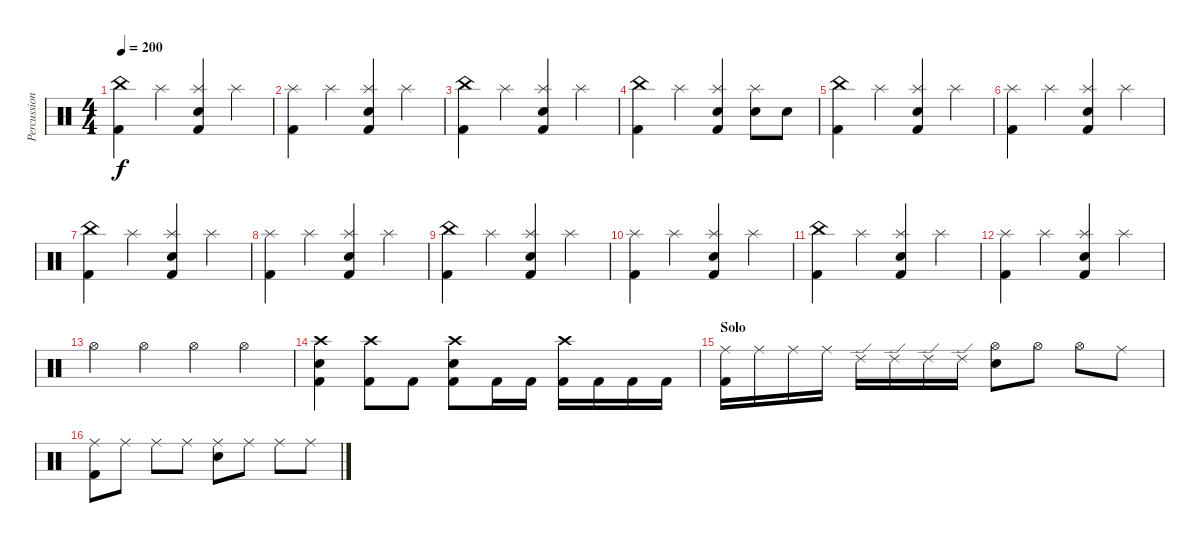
\track ("Percussion" "Percussion") {instrument percussion}
\staff {score}
\articulation defaults
\ts (4 4)
\tempo 200
\clef neutral
\ks c
("China (hit)" "Kick (hit) 2").4{dy f} "Splash (hit)".4 ("Splash (hit)" "Snare (hit) 2" "Kick (hit) 2").4 "Splash (hit)".4 |
("Splash (hit)" "Kick (hit) 2").4 "Splash (hit)".4 ("Splash (hit)" "Snare (hit) 2" "Kick (hit) 2").4 "Splash (hit)".4 |
("China (hit)" "Kick (hit) 2").4 "Splash (hit)".4 ("Splash (hit)" "Snare (hit) 2" "Kick (hit) 2").4 "Splash (hit)".4 |
("China (hit)" "Kick (hit) 2").4 "Splash (hit)".4 ("Splash (hit)" "Snare (hit) 2" "Kick (hit) 2").4 ("Splash (hit)" "Snare (hit) 2").8 "Snare (hit) 2".8 |
("China (hit)" "Kick (hit) 2").4 "Splash (hit)".4 ("Splash (hit)" "Snare (hit) 2" "Kick (hit) 2").4 "Splash (hit)".4 |
("Splash (hit)" "Kick (hit) 2").4 "Splash (hit)".4 ("Splash (hit)" "Snare (hit) 2" "Kick (hit) 2").4 "Splash (hit)".4 |
("China (hit)" "Kick (hit) 2").4 "Splash (hit)".4 ("Splash (hit)" "Snare (hit) 2" "Kick (hit) 2").4 "Splash (hit)".4 |
("Splash (hit)" "Kick (hit) 2").4 "Splash (hit)".4 ("Splash (hit)" "Snare (hit) 2" "Kick (hit) 2").4 "Splash (hit)".4 |
("China (hit)" "Kick (hit) 2").4 "Splash (hit)".4 ("Splash (hit)" "Snare (hit) 2" "Kick (hit) 2").4 "Splash (hit)".4 |
("Splash (hit)" "Kick (hit) 2").4 "Splash (hit)".4 ("Splash (hit)" "Snare (hit) 2" "Kick (hit) 2").4 "Splash (hit)".4 |
("China (hit)" "Kick (hit) 2").4 "Splash (hit)".4 ("Splash (hit)" "Snare (hit) 2" "Kick (hit) 2").4 "Splash (hit)".4 |
("Splash (hit)" "Kick (hit) 2").4 "Splash (hit)".4 ("Splash (hit)" "Snare (hit) 2" "Kick (hit) 2").4 "Splash (hit)".4 |
"Hi-Hat (open)".4 "Hi-Hat (open)".4 "Hi-Hat (open)".4 "Hi-Hat (open)".4 |
("Crash high (hit)" "Snare (hit) 2" "Kick (hit) 2").4 ("Crash high (hit)" "Kick (hit) 2").8 "Kick (hit) 2".8 ("Crash high (hit)" "Snare (hit) 2" "Kick (hit) 2").8 "Kick (hit) 2".16 "Kick (hit) 2".16 ("Crash high (hit)" "Kick (hit) 2").16 "Kick (hit) 2".16 "Kick (hit) 2".16 "Kick (hit) 2".16 |
\section ("" "Solo")
("Ride (middle)" "Kick (hit) 2").16 "Ride (middle)".16 "Ride (middle)".16 "Ride (middle)".16 "Ride (edge) 2".16 "Ride (edge) 2".16 "Ride (edge) 2".16 "Ride (edge) 2".16 ("Hi-Hat (open)" "Snare (hit) 2").8 "Hi-Hat (open)".8 "Hi-Hat (open)".8 "Ride (middle)".8 |
("Ride (middle)" "Kick (hit) 2").8 "Ride (middle)".8 "Ride (middle)".8 "Ride (middle)".8 ("Ride (middle)" "Snare (hit) 2").8 "Ride (middle)".8 "Ride (middle)".8 "Ride (middle)".8
